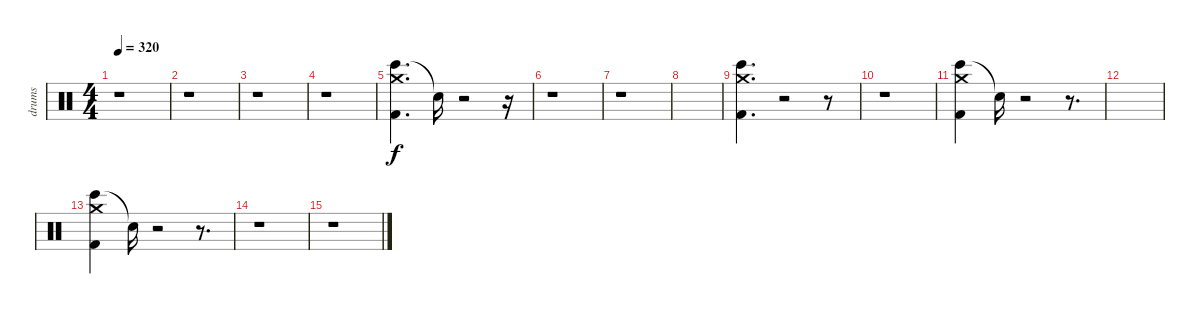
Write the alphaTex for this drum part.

\track ("drums" "drums") {instrument percussion}
\staff {score}
\articulation defaults
\ts (4 4)
\tempo 320
\clef neutral
\ks c
r.1{dy f} |
r.1 |
r.1 |
r.1 |
("Bongo High (hit)" "Kick (hit) 2" "Crash medium (hit)").4{d volume 11 balance 8} "Snare (hit)"{t}.16 r.2 r.16 |
r.1 |
r.1 |
|
("Bongo High (hit)" "Kick (hit) 2" "Crash medium (hit)").4{d} r.2 r.8 |
r.1 |
("Bongo High (hit)" "Kick (hit) 2" "Crash medium (hit)").4 "Snare (hit)"{t}.16 r.2 r.8{d} |
|
("Bongo High (hit)" "Kick (hit) 2" "Crash medium (hit)").4 "Snare (hit)"{t}.16 r.2 r.8{d} |
r.1 |
r.1
